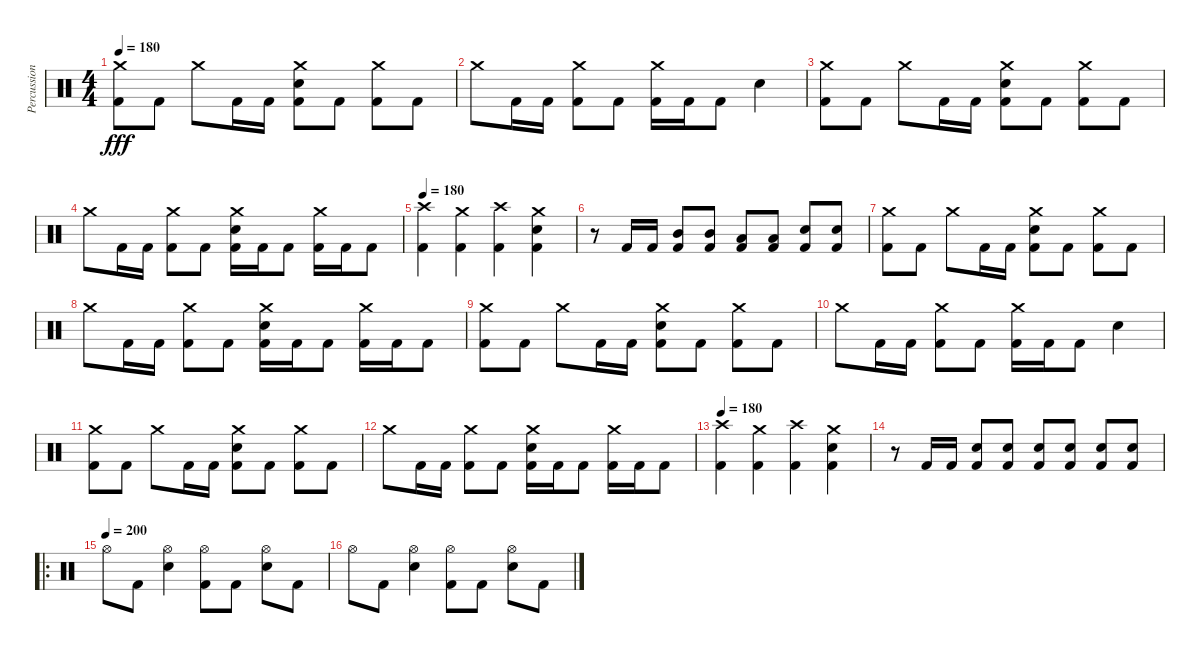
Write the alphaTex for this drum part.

\track ("Percussion" "Percussion") {instrument percussion}
\staff {score}
\articulation defaults
\ts (4 4)
\tempo 180
\clef neutral
\ks c
("Crash medium (hit)" "Kick (hit) 2").8{dy fff} "Kick (hit) 2".8 "Crash medium (hit)".8 "Kick (hit) 2".16 "Kick (hit) 2".16 ("Crash medium (hit)" "Electric Snare (hit)" "Kick (hit) 2").8 "Kick (hit) 2".8 ("Crash medium (hit)" "Kick (hit) 2").8 "Kick (hit) 2".8 |
"Crash medium (hit)".8 "Kick (hit) 2".16 "Kick (hit) 2".16 ("Crash medium (hit)" "Kick (hit) 2").8 "Kick (hit) 2".8 ("Crash medium (hit)" "Kick (hit) 2").16 "Kick (hit) 2".16 "Kick (hit) 2".8 "Electric Snare (hit)".4 |
("Crash medium (hit)" "Kick (hit) 2").8 "Kick (hit) 2".8 "Crash medium (hit)".8 "Kick (hit) 2".16 "Kick (hit) 2".16 ("Crash medium (hit)" "Electric Snare (hit)" "Kick (hit) 2").8 "Kick (hit) 2".8 ("Crash medium (hit)" "Kick (hit) 2").8 "Kick (hit) 2".8 |
"Crash medium (hit)".8 "Kick (hit) 2".16 "Kick (hit) 2".16 ("Crash medium (hit)" "Kick (hit) 2").8 "Kick (hit) 2".8 ("Crash medium (hit)" "Electric Snare (hit)" "Kick (hit) 2").16 "Kick (hit) 2".16 "Kick (hit) 2".8 ("Crash medium (hit)" "Kick (hit) 2").16 "Kick (hit) 2".16 "Kick (hit) 2".8 |
\tempo 180
("Crash high (hit)" "Kick (hit) 2").4 ("Crash medium (hit)" "Kick (hit) 2").4 ("Crash high (hit)" "Kick (hit) 2").4 ("Crash medium (hit)" "Electric Snare (hit)" "Kick (hit) 2").4 |
r.8 "Kick (hit) 2".16 "Kick (hit) 2".16 ("Mid Tom (hit)" "Kick (hit) 2").8 ("Mid Tom (hit)" "Kick (hit) 2").8 ("Low Tom (hit)" "Kick (hit) 2").8 ("Low Tom (hit)" "Kick (hit) 2").8 ("Electric Snare (hit)" "Kick (hit) 2").8 ("Electric Snare (hit)" "Kick (hit) 2").8 |
("Crash medium (hit)" "Kick (hit) 2").8 "Kick (hit) 2".8 "Crash medium (hit)".8 "Kick (hit) 2".16 "Kick (hit) 2".16 ("Crash medium (hit)" "Electric Snare (hit)" "Kick (hit) 2").8 "Kick (hit) 2".8 ("Crash medium (hit)" "Kick (hit) 2").8 "Kick (hit) 2".8 |
"Crash medium (hit)".8 "Kick (hit) 2".16 "Kick (hit) 2".16 ("Crash medium (hit)" "Kick (hit) 2").8 "Kick (hit) 2".8 ("Crash medium (hit)" "Electric Snare (hit)" "Kick (hit) 2").16 "Kick (hit) 2".16 "Kick (hit) 2".8 ("Crash medium (hit)" "Kick (hit) 2").16 "Kick (hit) 2".16 "Kick (hit) 2".8 |
("Crash medium (hit)" "Kick (hit) 2").8 "Kick (hit) 2".8 "Crash medium (hit)".8 "Kick (hit) 2".16 "Kick (hit) 2".16 ("Crash medium (hit)" "Electric Snare (hit)" "Kick (hit) 2").8 "Kick (hit) 2".8 ("Crash medium (hit)" "Kick (hit) 2").8 "Kick (hit) 2".8 |
"Crash medium (hit)".8 "Kick (hit) 2".16 "Kick (hit) 2".16 ("Crash medium (hit)" "Kick (hit) 2").8 "Kick (hit) 2".8 ("Crash medium (hit)" "Kick (hit) 2").16 "Kick (hit) 2".16 "Kick (hit) 2".8 "Electric Snare (hit)".4 |
("Crash medium (hit)" "Kick (hit) 2").8 "Kick (hit) 2".8 "Crash medium (hit)".8 "Kick (hit) 2".16 "Kick (hit) 2".16 ("Crash medium (hit)" "Electric Snare (hit)" "Kick (hit) 2").8 "Kick (hit) 2".8 ("Crash medium (hit)" "Kick (hit) 2").8 "Kick (hit) 2".8 |
"Crash medium (hit)".8 "Kick (hit) 2".16 "Kick (hit) 2".16 ("Crash medium (hit)" "Kick (hit) 2").8 "Kick (hit) 2".8 ("Crash medium (hit)" "Electric Snare (hit)" "Kick (hit) 2").16 "Kick (hit) 2".16 "Kick (hit) 2".8 ("Crash medium (hit)" "Kick (hit) 2").16 "Kick (hit) 2".16 "Kick (hit) 2".8 |
\tempo 180
("Crash high (hit)" "Kick (hit) 2").4 ("Crash medium (hit)" "Kick (hit) 2").4 ("Crash high (hit)" "Kick (hit) 2").4 ("Crash medium (hit)" "Electric Snare (hit)" "Kick (hit) 2").4 |
r.8 "Kick (hit) 2".16 "Kick (hit) 2".16 ("Electric Snare (hit)" "Kick (hit) 2").8 ("Electric Snare (hit)" "Kick (hit) 2").8 ("Electric Snare (hit)" "Kick (hit) 2").8 ("Electric Snare (hit)" "Kick (hit) 2").8 ("Electric Snare (hit)" "Kick (hit) 2").8 ("Electric Snare (hit)" "Kick (hit) 2").8 |
\ro
\tempo (200)
"Hi-Hat (open)".8 "Kick (hit) 2".8 ("Hi-Hat (open)" "Electric Snare (hit)").4 ("Hi-Hat (open)" "Kick (hit) 2").8 "Kick (hit) 2".8 ("Hi-Hat (open)" "Electric Snare (hit)").8 "Kick (hit) 2".8 |
"Hi-Hat (open)".8 "Kick (hit) 2".8 ("Hi-Hat (open)" "Electric Snare (hit)").4 ("Hi-Hat (open)" "Kick (hit) 2").8 "Kick (hit) 2".8 ("Hi-Hat (open)" "Electric Snare (hit)").8 "Kick (hit) 2".8
